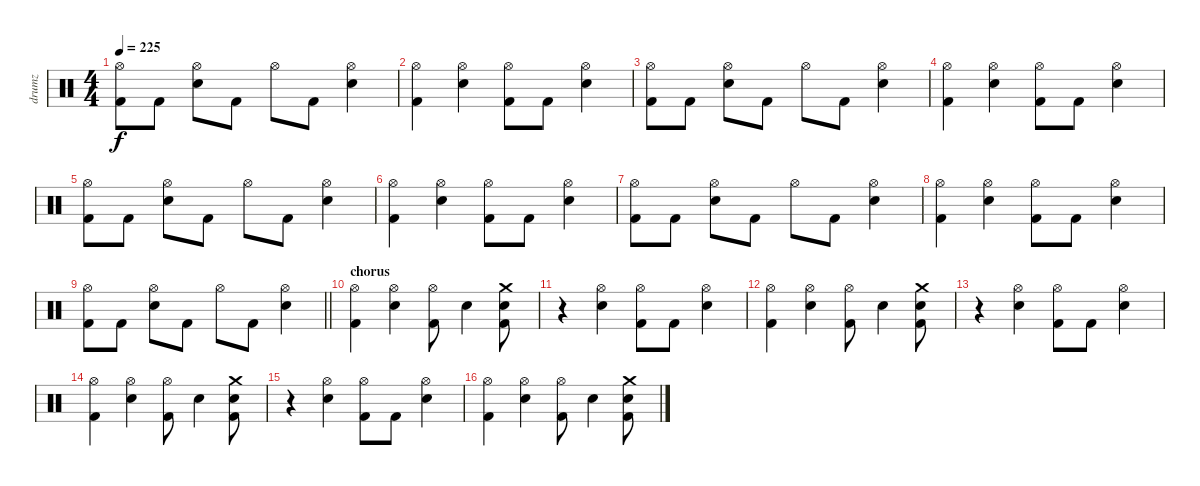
\track ("drumz" "drumz") {instrument percussion}
\staff {score}
\articulation defaults
\ts (4 4)
\tempo 225
\clef neutral
\ks c
("Hi-Hat (open)" "Kick (hit) 2").8{dy f} "Kick (hit) 2".8 ("Hi-Hat (open)" "Electric Snare (hit)").8 "Kick (hit) 2".8 "Hi-Hat (open)".8 "Kick (hit) 2".8 ("Hi-Hat (open)" "Electric Snare (hit)").4 |
("Hi-Hat (open)" "Kick (hit) 2").4 ("Hi-Hat (open)" "Electric Snare (hit)").4 ("Hi-Hat (open)" "Kick (hit) 2").8 "Kick (hit) 2".8 ("Hi-Hat (open)" "Electric Snare (hit)").4 |
("Hi-Hat (open)" "Kick (hit) 2").8 "Kick (hit) 2".8 ("Hi-Hat (open)" "Electric Snare (hit)").8 "Kick (hit) 2".8 "Hi-Hat (open)".8 "Kick (hit) 2".8 ("Hi-Hat (open)" "Electric Snare (hit)").4 |
("Hi-Hat (open)" "Kick (hit) 2").4 ("Hi-Hat (open)" "Electric Snare (hit)").4 ("Hi-Hat (open)" "Kick (hit) 2").8 "Kick (hit) 2".8 ("Hi-Hat (open)" "Electric Snare (hit)").4 |
("Hi-Hat (open)" "Kick (hit) 2").8 "Kick (hit) 2".8 ("Hi-Hat (open)" "Electric Snare (hit)").8 "Kick (hit) 2".8 "Hi-Hat (open)".8 "Kick (hit) 2".8 ("Hi-Hat (open)" "Electric Snare (hit)").4 |
("Hi-Hat (open)" "Kick (hit) 2").4 ("Hi-Hat (open)" "Electric Snare (hit)").4 ("Hi-Hat (open)" "Kick (hit) 2").8 "Kick (hit) 2".8 ("Hi-Hat (open)" "Electric Snare (hit)").4 |
("Hi-Hat (open)" "Kick (hit) 2").8 "Kick (hit) 2".8 ("Hi-Hat (open)" "Electric Snare (hit)").8 "Kick (hit) 2".8 "Hi-Hat (open)".8 "Kick (hit) 2".8 ("Hi-Hat (open)" "Electric Snare (hit)").4 |
("Hi-Hat (open)" "Kick (hit) 2").4 ("Hi-Hat (open)" "Electric Snare (hit)").4 ("Hi-Hat (open)" "Kick (hit) 2").8 "Kick (hit) 2".8 ("Hi-Hat (open)" "Electric Snare (hit)").4 |
\barLineRight lightlight
("Hi-Hat (open)" "Kick (hit) 2").8 "Kick (hit) 2".8 ("Hi-Hat (open)" "Electric Snare (hit)").8 "Kick (hit) 2".8 "Hi-Hat (open)".8 "Kick (hit) 2".8 ("Hi-Hat (open)" "Electric Snare (hit)").4 |
\section ("" "chorus")
("Hi-Hat (open)" "Kick (hit) 2").4 ("Hi-Hat (open)" "Electric Snare (hit)").4 ("Hi-Hat (open)" "Kick (hit) 2").8 "Electric Snare (hit)".4 ("Crash medium (hit)" "Electric Snare (hit)" "Kick (hit) 2").8 |
r.4 ("Hi-Hat (open)" "Electric Snare (hit)").4 ("Hi-Hat (open)" "Kick (hit) 2").8 "Kick (hit) 2".8 ("Hi-Hat (open)" "Electric Snare (hit)").4 |
("Hi-Hat (open)" "Kick (hit) 2").4 ("Hi-Hat (open)" "Electric Snare (hit)").4 ("Hi-Hat (open)" "Kick (hit) 2").8 "Electric Snare (hit)".4 ("Crash medium (hit)" "Electric Snare (hit)" "Kick (hit) 2").8 |
r.4 ("Hi-Hat (open)" "Electric Snare (hit)").4 ("Hi-Hat (open)" "Kick (hit) 2").8 "Kick (hit) 2".8 ("Hi-Hat (open)" "Electric Snare (hit)").4 |
("Hi-Hat (open)" "Kick (hit) 2").4 ("Hi-Hat (open)" "Electric Snare (hit)").4 ("Hi-Hat (open)" "Kick (hit) 2").8 "Electric Snare (hit)".4 ("Crash medium (hit)" "Electric Snare (hit)" "Kick (hit) 2").8 |
r.4 ("Hi-Hat (open)" "Electric Snare (hit)").4 ("Hi-Hat (open)" "Kick (hit) 2").8 "Kick (hit) 2".8 ("Hi-Hat (open)" "Electric Snare (hit)").4 |
("Hi-Hat (open)" "Kick (hit) 2").4 ("Hi-Hat (open)" "Electric Snare (hit)").4 ("Hi-Hat (open)" "Kick (hit) 2").8 "Electric Snare (hit)".4 ("Crash medium (hit)" "Electric Snare (hit)" "Kick (hit) 2").8
